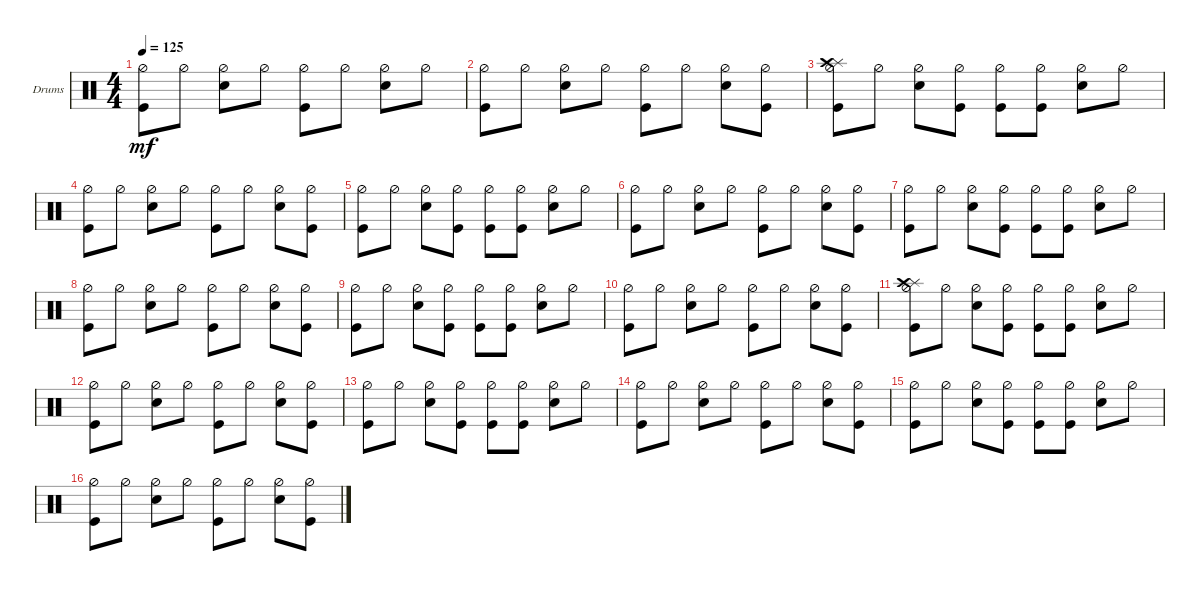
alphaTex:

\defaultSystemsLayout 4
\bracketExtendMode groupsimilarinstruments
\firstSystemTrackNameOrientation horizontal
\otherSystemsTrackNameOrientation horizontal
\track ("Drumkit" "Drums") {instrument percussion}
\staff {score}
\articulation defaults
\ts (4 4)
\tempo 125
\clef neutral
\scale
0.333333
\ks c
("Kick (hit)" "Hi-Hat (half)").8{dy mf} "Hi-Hat (half)".8 ("Hi-Hat (half)" "Snare (hit) 2").8 "Hi-Hat (half)".8 ("Kick (hit)" "Hi-Hat (half)").8 "Hi-Hat (half)".8 ("Hi-Hat (half)" "Snare (hit) 2").8 "Hi-Hat (half)".8 |
\scale
0.333333 ("Kick (hit)" "Hi-Hat (half)").8 "Hi-Hat (half)".8 ("Hi-Hat (half)" "Snare (hit) 2").8 "Hi-Hat (half)".8 ("Kick (hit)" "Hi-Hat (half)").8 "Hi-Hat (half)".8 ("Hi-Hat (half)" "Snare (hit) 2").8 ("Hi-Hat (half)" "Kick (hit)").8 |
\scale
0.333333 ("Kick (hit)" "Hi-Hat (half)" "Splash (hit)" "Crash high (hit)").8 "Hi-Hat (half)".8 ("Hi-Hat (half)" "Snare (hit) 2").8 ("Hi-Hat (half)" "Kick (hit)").8 ("Kick (hit)" "Hi-Hat (half)").8 ("Hi-Hat (half)" "Kick (hit)").8 ("Hi-Hat (half)" "Snare (hit) 2").8 "Hi-Hat (half)".8 |
\scale
0.333333 ("Kick (hit)" "Hi-Hat (half)").8 "Hi-Hat (half)".8 ("Hi-Hat (half)" "Snare (hit) 2").8 "Hi-Hat (half)".8 ("Kick (hit)" "Hi-Hat (half)").8 "Hi-Hat (half)".8 ("Hi-Hat (half)" "Snare (hit) 2").8 ("Hi-Hat (half)" "Kick (hit)").8 |
\scale
0.333333 ("Kick (hit)" "Hi-Hat (half)").8 "Hi-Hat (half)".8 ("Hi-Hat (half)" "Snare (hit) 2").8 ("Hi-Hat (half)" "Kick (hit)").8 ("Kick (hit)" "Hi-Hat (half)").8 ("Hi-Hat (half)" "Kick (hit)").8 ("Hi-Hat (half)" "Snare (hit) 2").8 "Hi-Hat (half)".8 |
\scale
0.333333 ("Kick (hit)" "Hi-Hat (half)").8 "Hi-Hat (half)".8 ("Hi-Hat (half)" "Snare (hit) 2").8 "Hi-Hat (half)".8 ("Kick (hit)" "Hi-Hat (half)").8 "Hi-Hat (half)".8 ("Hi-Hat (half)" "Snare (hit) 2").8 ("Hi-Hat (half)" "Kick (hit)").8 |
\scale
0.333333 ("Kick (hit)" "Hi-Hat (half)").8 "Hi-Hat (half)".8 ("Hi-Hat (half)" "Snare (hit) 2").8 ("Hi-Hat (half)" "Kick (hit)").8 ("Kick (hit)" "Hi-Hat (half)").8 ("Hi-Hat (half)" "Kick (hit)").8 ("Hi-Hat (half)" "Snare (hit) 2").8 "Hi-Hat (half)".8 |
\scale
0.333333 ("Kick (hit)" "Hi-Hat (half)").8 "Hi-Hat (half)".8 ("Hi-Hat (half)" "Snare (hit) 2").8 "Hi-Hat (half)".8 ("Kick (hit)" "Hi-Hat (half)").8 "Hi-Hat (half)".8 ("Hi-Hat (half)" "Snare (hit) 2").8 ("Hi-Hat (half)" "Kick (hit)").8 |
("Kick (hit)" "Hi-Hat (half)").8 "Hi-Hat (half)".8 ("Hi-Hat (half)" "Snare (hit) 2").8 ("Hi-Hat (half)" "Kick (hit)").8 ("Kick (hit)" "Hi-Hat (half)").8 ("Hi-Hat (half)" "Kick (hit)").8 ("Hi-Hat (half)" "Snare (hit) 2").8 "Hi-Hat (half)".8 |
("Kick (hit)" "Hi-Hat (half)").8 "Hi-Hat (half)".8 ("Hi-Hat (half)" "Snare (hit) 2").8 "Hi-Hat (half)".8 ("Kick (hit)" "Hi-Hat (half)").8 "Hi-Hat (half)".8 ("Hi-Hat (half)" "Snare (hit) 2").8 ("Hi-Hat (half)" "Kick (hit)").8 |
("Kick (hit)" "Hi-Hat (half)" "Splash (hit)" "Crash high (hit)").8 "Hi-Hat (half)".8 ("Hi-Hat (half)" "Snare (hit) 2").8 ("Hi-Hat (half)" "Kick (hit)").8 ("Kick (hit)" "Hi-Hat (half)").8 ("Hi-Hat (half)" "Kick (hit)").8 ("Hi-Hat (half)" "Snare (hit) 2").8 "Hi-Hat (half)".8 |
("Kick (hit)" "Hi-Hat (half)").8 "Hi-Hat (half)".8 ("Hi-Hat (half)" "Snare (hit) 2").8 "Hi-Hat (half)".8 ("Kick (hit)" "Hi-Hat (half)").8 "Hi-Hat (half)".8 ("Hi-Hat (half)" "Snare (hit) 2").8 ("Hi-Hat (half)" "Kick (hit)").8 |
("Kick (hit)" "Hi-Hat (half)").8 "Hi-Hat (half)".8 ("Hi-Hat (half)" "Snare (hit) 2").8 ("Hi-Hat (half)" "Kick (hit)").8 ("Kick (hit)" "Hi-Hat (half)").8 ("Hi-Hat (half)" "Kick (hit)").8 ("Hi-Hat (half)" "Snare (hit) 2").8 "Hi-Hat (half)".8 |
("Kick (hit)" "Hi-Hat (half)").8 "Hi-Hat (half)".8 ("Hi-Hat (half)" "Snare (hit) 2").8 "Hi-Hat (half)".8 ("Kick (hit)" "Hi-Hat (half)").8 "Hi-Hat (half)".8 ("Hi-Hat (half)" "Snare (hit) 2").8 ("Hi-Hat (half)" "Kick (hit)").8 |
("Kick (hit)" "Hi-Hat (half)").8 "Hi-Hat (half)".8 ("Hi-Hat (half)" "Snare (hit) 2").8 ("Hi-Hat (half)" "Kick (hit)").8 ("Kick (hit)" "Hi-Hat (half)").8 ("Hi-Hat (half)" "Kick (hit)").8 ("Hi-Hat (half)" "Snare (hit) 2").8 "Hi-Hat (half)".8 |
("Kick (hit)" "Hi-Hat (half)").8 "Hi-Hat (half)".8 ("Hi-Hat (half)" "Snare (hit) 2").8 "Hi-Hat (half)".8 ("Kick (hit)" "Hi-Hat (half)").8 "Hi-Hat (half)".8 ("Hi-Hat (half)" "Snare (hit) 2").8 ("Hi-Hat (half)" "Kick (hit)").8
